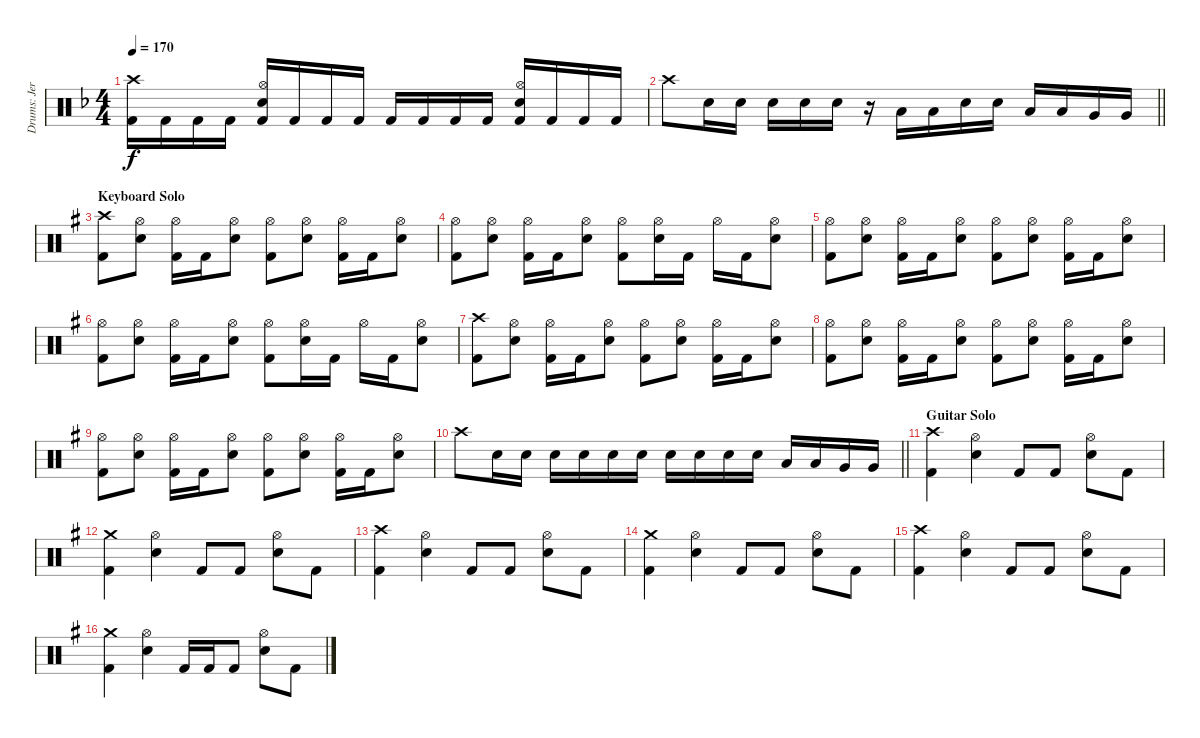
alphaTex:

\track ("Drums: Jere Luokkamäki" "Drums: Jer") {instrument percussion}
\staff {score}
\articulation defaults
\ts (4 4)
\tempo 170
\clef neutral
\ks dminor
("Crash high (hit)" "Kick (hit) 2").16{dy f} "Kick (hit) 2".16 "Kick (hit) 2".16 "Kick (hit) 2".16 ("Hi-Hat (open)" "Electric Snare (hit)" "Kick (hit) 2").16 "Kick (hit) 2".16 "Kick (hit) 2".16 "Kick (hit) 2".16 "Kick (hit) 2".16 "Kick (hit) 2".16 "Kick (hit) 2".16 "Kick (hit) 2".16 ("Hi-Hat (open)" "Electric Snare (hit)" "Kick (hit) 2").16 "Kick (hit) 2".16 "Kick (hit) 2".16 "Kick (hit) 2".16 |
\barLineRight lightlight "Crash high (hit)".8 "Electric Snare (hit)".16 "Electric Snare (hit)".16 "Electric Snare (hit)".16 "Electric Snare (hit)".16 "Electric Snare (hit)".16
r.16 "Low Tom (hit)".16 "Low Tom (hit)".16 "Electric Snare (hit)".16 "Electric Snare (hit)".16 "Low Tom (hit)".16 "Low Tom (hit)".16 "Very Low Tom (hit)".16 "Very Low Tom (hit)".16 |
\section ("" "Keyboard Solo")
\ks eminor
("Crash high (hit)" "Kick (hit) 2").8 ("Hi-Hat (open)" "Electric Snare (hit)").8 ("Hi-Hat (open)" "Kick (hit) 2").16 "Kick (hit) 2".16 ("Hi-Hat (open)" "Electric Snare (hit)").8 ("Hi-Hat (open)" "Kick (hit) 2").8 ("Hi-Hat (open)" "Electric Snare (hit)").8 ("Hi-Hat (open)" "Kick (hit) 2").16 "Kick (hit) 2".16 ("Hi-Hat (open)" "Electric Snare (hit)").8 |
("Hi-Hat (open)" "Kick (hit) 2").8 ("Hi-Hat (open)" "Electric Snare (hit)").8 ("Hi-Hat (open)" "Kick (hit) 2").16 "Kick (hit) 2".16 ("Hi-Hat (open)" "Electric Snare (hit)").8 ("Hi-Hat (open)" "Kick (hit) 2").8 ("Hi-Hat (open)" "Electric Snare (hit)").16 "Kick (hit) 2".16 "Hi-Hat (open)".16 "Kick (hit) 2".16 ("Hi-Hat (open)" "Electric Snare (hit)").8 |
("Hi-Hat (open)" "Kick (hit) 2").8 ("Hi-Hat (open)" "Electric Snare (hit)").8 ("Hi-Hat (open)" "Kick (hit) 2").16 "Kick (hit) 2".16 ("Hi-Hat (open)" "Electric Snare (hit)").8 ("Hi-Hat (open)" "Kick (hit) 2").8 ("Hi-Hat (open)" "Electric Snare (hit)").8 ("Hi-Hat (open)" "Kick (hit) 2").16 "Kick (hit) 2".16 ("Hi-Hat (open)" "Electric Snare (hit)").8 |
("Hi-Hat (open)" "Kick (hit) 2").8 ("Hi-Hat (open)" "Electric Snare (hit)").8 ("Hi-Hat (open)" "Kick (hit) 2").16 "Kick (hit) 2".16 ("Hi-Hat (open)" "Electric Snare (hit)").8 ("Hi-Hat (open)" "Kick (hit) 2").8 ("Hi-Hat (open)" "Electric Snare (hit)").16 "Kick (hit) 2".16 "Hi-Hat (open)".16 "Kick (hit) 2".16 ("Hi-Hat (open)" "Electric Snare (hit)").8 |
("Crash high (hit)" "Kick (hit) 2").8 ("Hi-Hat (open)" "Electric Snare (hit)").8 ("Hi-Hat (open)" "Kick (hit) 2").16 "Kick (hit) 2".16 ("Hi-Hat (open)" "Electric Snare (hit)").8 ("Hi-Hat (open)" "Kick (hit) 2").8 ("Hi-Hat (open)" "Electric Snare (hit)").8 ("Hi-Hat (open)" "Kick (hit) 2").16 "Kick (hit) 2".16 ("Hi-Hat (open)" "Electric Snare (hit)").8 |
("Hi-Hat (open)" "Kick (hit) 2").8 ("Hi-Hat (open)" "Electric Snare (hit)").8 ("Hi-Hat (open)" "Kick (hit) 2").16 "Kick (hit) 2".16 ("Hi-Hat (open)" "Electric Snare (hit)").8 ("Hi-Hat (open)" "Kick (hit) 2").8 ("Hi-Hat (open)" "Electric Snare (hit)").8 ("Hi-Hat (open)" "Kick (hit) 2").16 "Kick (hit) 2".16 ("Hi-Hat (open)" "Electric Snare (hit)").8 |
("Hi-Hat (open)" "Kick (hit) 2").8 ("Hi-Hat (open)" "Electric Snare (hit)").8 ("Hi-Hat (open)" "Kick (hit) 2").16 "Kick (hit) 2".16 ("Hi-Hat (open)" "Electric Snare (hit)").8 ("Hi-Hat (open)" "Kick (hit) 2").8 ("Hi-Hat (open)" "Electric Snare (hit)").8 ("Hi-Hat (open)" "Kick (hit) 2").16 "Kick (hit) 2".16 ("Hi-Hat (open)" "Electric Snare (hit)").8 |
\barLineRight lightlight "Crash high (hit)".8 "Electric Snare (hit)".16 "Electric Snare (hit)".16 "Electric Snare (hit)".16 "Electric Snare (hit)".16 "Electric Snare (hit)".16 "Electric Snare (hit)".16 "Electric Snare (hit)".16 "Electric Snare (hit)".16 "Electric Snare (hit)".16 "Electric Snare (hit)".16 "Low Tom (hit)".16 "Low Tom (hit)".16 "Very Low Tom (hit)".16 "Very Low Tom (hit)".16
|
\section ("" "Guitar Solo")
("Crash high (hit)" "Kick (hit) 2").4 ("Hi-Hat (open)" "Electric Snare (hit)").4 "Kick (hit) 2".8 "Kick (hit) 2".8 ("Hi-Hat (open)" "Electric Snare (hit)").8 "Kick (hit) 2".8 |
("Crash medium (hit)" "Kick (hit) 2").4 ("Hi-Hat (open)" "Electric Snare (hit)").4 "Kick (hit) 2".8 "Kick (hit) 2".8 ("Hi-Hat (open)" "Electric Snare (hit)").8 "Kick (hit) 2".8 |
("Crash high (hit)" "Kick (hit) 2").4 ("Hi-Hat (open)" "Electric Snare (hit)").4 "Kick (hit) 2".8 "Kick (hit) 2".8 ("Hi-Hat (open)" "Electric Snare (hit)").8 "Kick (hit) 2".8 |
("Crash medium (hit)" "Kick (hit) 2").4 ("Hi-Hat (open)" "Electric Snare (hit)").4 "Kick (hit) 2".8 "Kick (hit) 2".8 ("Hi-Hat (open)" "Electric Snare (hit)").8 "Kick (hit) 2".8 |
("Crash high (hit)" "Kick (hit) 2").4 ("Hi-Hat (open)" "Electric Snare (hit)").4 "Kick (hit) 2".8 "Kick (hit) 2".8 ("Hi-Hat (open)" "Electric Snare (hit)").8 "Kick (hit) 2".8 |
("Crash medium (hit)" "Kick (hit) 2").4 ("Hi-Hat (open)" "Electric Snare (hit)").4 "Kick (hit) 2".16 "Kick (hit) 2".16 "Kick (hit) 2".8 ("Hi-Hat (open)" "Electric Snare (hit)").8 "Kick (hit) 2".8
